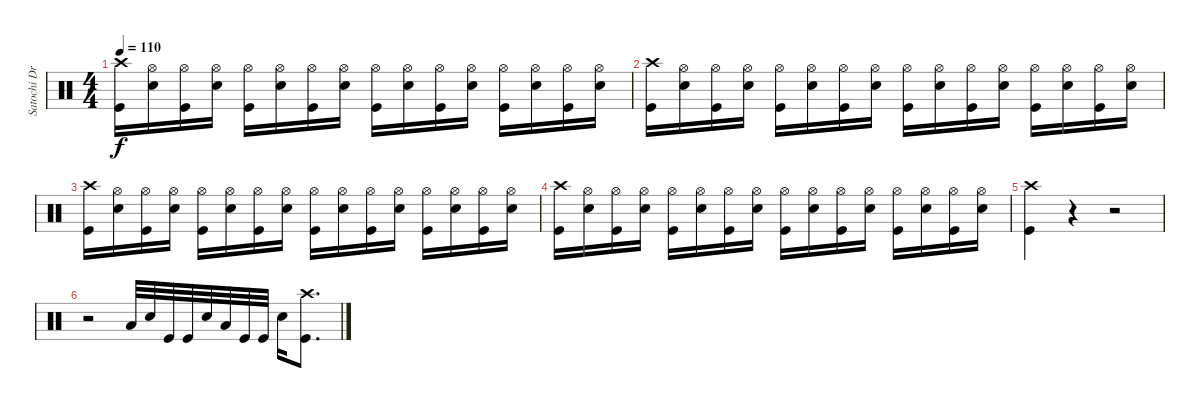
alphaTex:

\track ("Satochi Drums" "Satochi Dr") {instrument percussion}
\staff {score}
\articulation defaults
\ts (4 4)
\tempo 110
\clef neutral
\ks c
("Crash high (hit)" "Kick (hit)").16{dy f} ("Hi-Hat (open)" "Electric Snare (hit)").16 ("Hi-Hat (open)" "Kick (hit)").16 ("Hi-Hat (open)" "Electric Snare (hit)").16 ("Hi-Hat (open)" "Kick (hit)").16 ("Hi-Hat (open)" "Electric Snare (hit)").16 ("Hi-Hat (open)" "Kick (hit)").16 ("Hi-Hat (open)" "Electric Snare (hit)").16 ("Hi-Hat (open)" "Kick (hit)").16 ("Hi-Hat (open)" "Electric Snare (hit)").16 ("Hi-Hat (open)" "Kick (hit)").16 ("Hi-Hat (open)" "Electric Snare (hit)").16 ("Hi-Hat (open)" "Kick (hit)").16 ("Hi-Hat (open)" "Electric Snare (hit)").16 ("Hi-Hat (open)" "Kick (hit)").16 ("Hi-Hat (open)" "Electric Snare (hit)").16 |
("Crash high (hit)" "Kick (hit)").16 ("Hi-Hat (open)" "Electric Snare (hit)").16 ("Hi-Hat (open)" "Kick (hit)").16 ("Hi-Hat (open)" "Electric Snare (hit)").16 ("Hi-Hat (open)" "Kick (hit)").16 ("Hi-Hat (open)" "Electric Snare (hit)").16 ("Hi-Hat (open)" "Kick (hit)").16 ("Hi-Hat (open)" "Electric Snare (hit)").16 ("Hi-Hat (open)" "Kick (hit)").16 ("Hi-Hat (open)" "Electric Snare (hit)").16 ("Hi-Hat (open)" "Kick (hit)").16 ("Hi-Hat (open)" "Electric Snare (hit)").16 ("Hi-Hat (open)" "Kick (hit)").16 ("Hi-Hat (open)" "Electric Snare (hit)").16 ("Hi-Hat (open)" "Kick (hit)").16 ("Hi-Hat (open)" "Electric Snare (hit)").16 |
("Crash high (hit)" "Kick (hit)").16 ("Hi-Hat (open)" "Electric Snare (hit)").16 ("Hi-Hat (open)" "Kick (hit)").16 ("Hi-Hat (open)" "Electric Snare (hit)").16 ("Hi-Hat (open)" "Kick (hit)").16 ("Hi-Hat (open)" "Electric Snare (hit)").16 ("Hi-Hat (open)" "Kick (hit)").16 ("Hi-Hat (open)" "Electric Snare (hit)").16 ("Hi-Hat (open)" "Kick (hit)").16 ("Hi-Hat (open)" "Electric Snare (hit)").16 ("Hi-Hat (open)" "Kick (hit)").16 ("Hi-Hat (open)" "Electric Snare (hit)").16 ("Hi-Hat (open)" "Kick (hit)").16 ("Hi-Hat (open)" "Electric Snare (hit)").16 ("Hi-Hat (open)" "Kick (hit)").16 ("Hi-Hat (open)" "Electric Snare (hit)").16 |
("Crash high (hit)" "Kick (hit)").16 ("Hi-Hat (open)" "Electric Snare (hit)").16 ("Hi-Hat (open)" "Kick (hit)").16 ("Hi-Hat (open)" "Electric Snare (hit)").16 ("Hi-Hat (open)" "Kick (hit)").16 ("Hi-Hat (open)" "Electric Snare (hit)").16 ("Hi-Hat (open)" "Kick (hit)").16 ("Hi-Hat (open)" "Electric Snare (hit)").16 ("Hi-Hat (open)" "Kick (hit)").16 ("Hi-Hat (open)" "Electric Snare (hit)").16 ("Hi-Hat (open)" "Kick (hit)").16 ("Hi-Hat (open)" "Electric Snare (hit)").16 ("Hi-Hat (open)" "Kick (hit)").16 ("Hi-Hat (open)" "Electric Snare (hit)").16 ("Hi-Hat (open)" "Kick (hit)").16 ("Hi-Hat (open)" "Electric Snare (hit)").16 |
("Crash high (hit)" "Kick (hit)").4 r.4 r.2 |
r.2 "Low Tom (hit)".32 "Electric Snare (hit)".32 "Kick (hit)".32 "Kick (hit)".32 "Electric Snare (hit)".32 "Low Tom (hit)".32 "Kick (hit)".32 "Kick (hit)".32 "Electric Snare (hit)".16 ("Crash high (hit)" "Kick (hit)").8{d}
